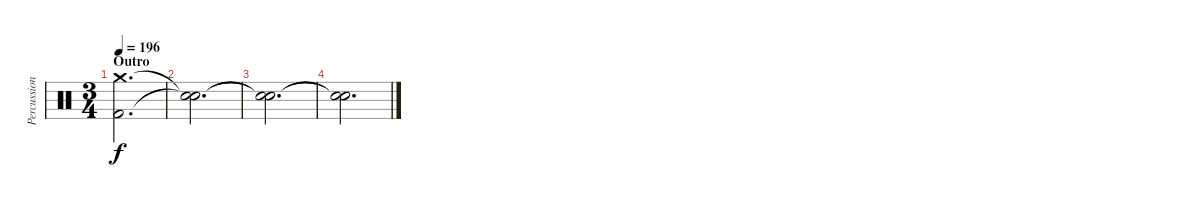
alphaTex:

\track ("Percussion" "Percussion") {instrument percussion}
\staff {score}
\articulation defaults
\ts (3 4)
\section ("" "Outro")
\tempo 196
\clef neutral
\ks c
("Crash medium (hit)" "Kick (hit) 2").2{d dy f} |
("Snare (hit)"{t} "Snare (hit)"{t}).2{d} |
("Snare (hit)"{t} "Snare (hit)"{t}).2{d} |
("Snare (hit)"{t} "Snare (hit)"{t}).2{d}
